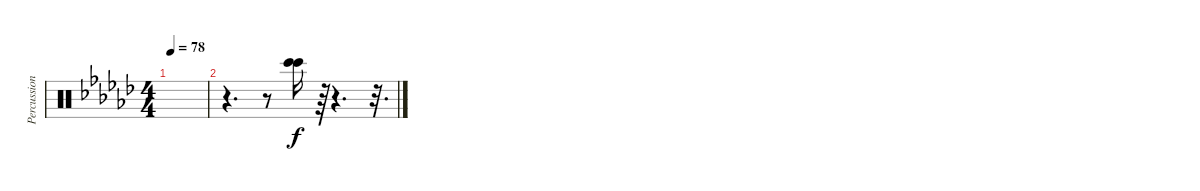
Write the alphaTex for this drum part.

\track ("Percussions" "Percussion") {instrument percussion}
\staff {score}
\articulation defaults
\ts (4 4)
\tempo 78
\clef neutral
\ks gb
|
r.4{d} r.8 ("Bongo High (hit)" "Bongo High (hit)").16{bd 480} r.64 r.4{d} r.32{d}
